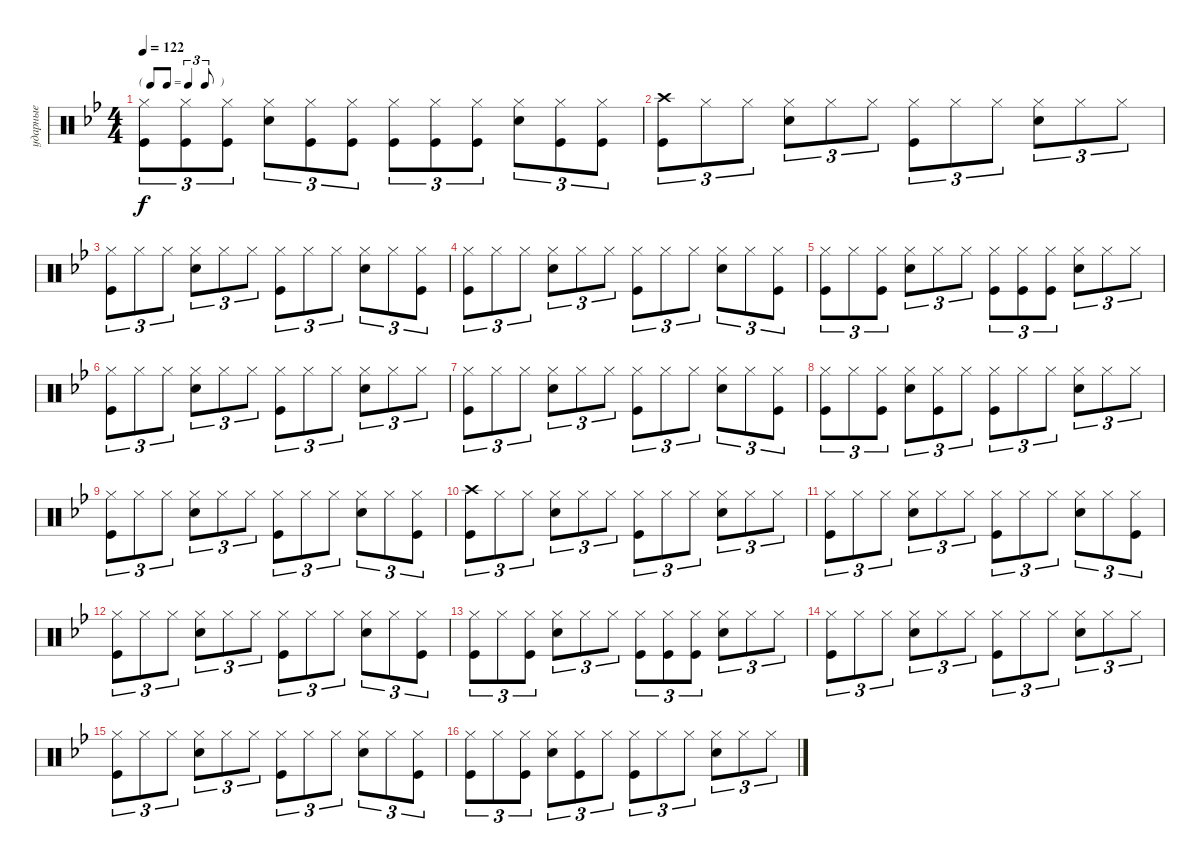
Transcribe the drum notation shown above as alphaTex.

\track ("ударные" "ударные") {instrument percussion}
\staff {score}
\articulation defaults
\ts (4 4)
\tf triplet8th
\tempo 122
\clef neutral
\ks gminor
("Hi-Hat (closed)" "Kick (hit)").8{tu (3 2) dy f} ("Hi-Hat (closed)" "Kick (hit)").8{tu (3 2)} ("Hi-Hat (closed)" "Kick (hit)").8{tu (3 2)} ("Hi-Hat (closed)" "Snare (hit) 2").8{tu (3 2)} ("Hi-Hat (closed)" "Kick (hit)").8{tu (3 2)} ("Hi-Hat (closed)" "Kick (hit)").8{tu (3 2)} ("Hi-Hat (closed)" "Kick (hit)").8{tu (3 2)} ("Hi-Hat (closed)" "Kick (hit)").8{tu (3 2)} ("Hi-Hat (closed)" "Kick (hit)").8{tu (3 2)} ("Hi-Hat (closed)" "Snare (hit) 2").8{tu (3 2)} ("Hi-Hat (closed)" "Kick (hit)").8{tu (3 2)} ("Hi-Hat (closed)" "Kick (hit)").8{tu (3 2)} |
("Kick (hit)" "Crash high (hit)").8{tu (3 2)} "Hi-Hat (closed)".8{tu (3 2)} "Hi-Hat (closed)".8{tu (3 2)} ("Hi-Hat (closed)" "Snare (hit) 2").8{tu (3 2)} "Hi-Hat (closed)".8{tu (3 2)} "Hi-Hat (closed)".8{tu (3 2)} ("Hi-Hat (closed)" "Kick (hit)").8{tu (3 2)} "Hi-Hat (closed)".8{tu (3 2)} "Hi-Hat (closed)".8{tu (3 2)} ("Hi-Hat (closed)" "Snare (hit) 2").8{tu (3 2)} "Hi-Hat (closed)".8{tu (3 2)} "Hi-Hat (closed)".8{tu (3 2)} |
("Hi-Hat (closed)" "Kick (hit)").8{tu (3 2)} "Hi-Hat (closed)".8{tu (3 2)} "Hi-Hat (closed)".8{tu (3 2)} ("Hi-Hat (closed)" "Snare (hit) 2").8{tu (3 2)} "Hi-Hat (closed)".8{tu (3 2)} "Hi-Hat (closed)".8{tu (3 2)} ("Hi-Hat (closed)" "Kick (hit)").8{tu (3 2)} "Hi-Hat (closed)".8{tu (3 2)} "Hi-Hat (closed)".8{tu (3 2)} ("Hi-Hat (closed)" "Snare (hit) 2").8{tu (3 2)} "Hi-Hat (closed)".8{tu (3 2)} ("Hi-Hat (closed)" "Kick (hit)").8{tu (3 2)} |
("Hi-Hat (closed)" "Kick (hit)").8{tu (3 2)} "Hi-Hat (closed)".8{tu (3 2)} "Hi-Hat (closed)".8{tu (3 2)} ("Hi-Hat (closed)" "Snare (hit) 2").8{tu (3 2)} "Hi-Hat (closed)".8{tu (3 2)} "Hi-Hat (closed)".8{tu (3 2)} ("Hi-Hat (closed)" "Kick (hit)").8{tu (3 2)} "Hi-Hat (closed)".8{tu (3 2)} "Hi-Hat (closed)".8{tu (3 2)} ("Hi-Hat (closed)" "Snare (hit) 2").8{tu (3 2)} "Hi-Hat (closed)".8{tu (3 2)} ("Hi-Hat (closed)" "Kick (hit)").8{tu (3 2)} |
("Hi-Hat (closed)" "Kick (hit)").8{tu (3 2)} "Hi-Hat (closed)".8{tu (3 2)} ("Hi-Hat (closed)" "Kick (hit)").8{tu (3 2)} ("Hi-Hat (closed)" "Snare (hit) 2").8{tu (3 2)} "Hi-Hat (closed)".8{tu (3 2)} "Hi-Hat (closed)".8{tu (3 2)} ("Hi-Hat (closed)" "Kick (hit)").8{tu (3 2)} ("Hi-Hat (closed)" "Kick (hit)").8{tu (3 2)} ("Hi-Hat (closed)" "Kick (hit)").8{tu (3 2)} ("Hi-Hat (closed)" "Snare (hit) 2").8{tu (3 2)} "Hi-Hat (closed)".8{tu (3 2)} "Hi-Hat (closed)".8{tu (3 2)} |
("Hi-Hat (closed)" "Kick (hit)").8{tu (3 2)} "Hi-Hat (closed)".8{tu (3 2)} "Hi-Hat (closed)".8{tu (3 2)} ("Hi-Hat (closed)" "Snare (hit) 2").8{tu (3 2)} "Hi-Hat (closed)".8{tu (3 2)} "Hi-Hat (closed)".8{tu (3 2)} ("Hi-Hat (closed)" "Kick (hit)").8{tu (3 2)} "Hi-Hat (closed)".8{tu (3 2)} "Hi-Hat (closed)".8{tu (3 2)} ("Hi-Hat (closed)" "Snare (hit) 2").8{tu (3 2)} "Hi-Hat (closed)".8{tu (3 2)} "Hi-Hat (closed)".8{tu (3 2)} |
("Hi-Hat (closed)" "Kick (hit)").8{tu (3 2)} "Hi-Hat (closed)".8{tu (3 2)} "Hi-Hat (closed)".8{tu (3 2)} ("Hi-Hat (closed)" "Snare (hit) 2").8{tu (3 2)} "Hi-Hat (closed)".8{tu (3 2)} "Hi-Hat (closed)".8{tu (3 2)} ("Hi-Hat (closed)" "Kick (hit)").8{tu (3 2)} "Hi-Hat (closed)".8{tu (3 2)} "Hi-Hat (closed)".8{tu (3 2)} ("Hi-Hat (closed)" "Snare (hit) 2").8{tu (3 2)} "Hi-Hat (closed)".8{tu (3 2)} ("Hi-Hat (closed)" "Kick (hit)").8{tu (3 2)} |
("Hi-Hat (closed)" "Kick (hit)").8{tu (3 2)} "Hi-Hat (closed)".8{tu (3 2)} ("Hi-Hat (closed)" "Kick (hit)").8{tu (3 2)} ("Hi-Hat (closed)" "Snare (hit) 2").8{tu (3 2)} ("Hi-Hat (closed)" "Kick (hit)").8{tu (3 2)} "Hi-Hat (closed)".8{tu (3 2)} ("Hi-Hat (closed)" "Kick (hit)").8{tu (3 2)} "Hi-Hat (closed)".8{tu (3 2)} "Hi-Hat (closed)".8{tu (3 2)} ("Hi-Hat (closed)" "Snare (hit) 2").8{tu (3 2)} "Hi-Hat (closed)".8{tu (3 2)} "Hi-Hat (closed)".8{tu (3 2)} |
("Hi-Hat (closed)" "Kick (hit)").8{tu (3 2)} "Hi-Hat (closed)".8{tu (3 2)} "Hi-Hat (closed)".8{tu (3 2)} ("Hi-Hat (closed)" "Snare (hit) 2").8{tu (3 2)} "Hi-Hat (closed)".8{tu (3 2)} "Hi-Hat (closed)".8{tu (3 2)} ("Hi-Hat (closed)" "Kick (hit)").8{tu (3 2)} "Hi-Hat (closed)".8{tu (3 2)} "Hi-Hat (closed)".8{tu (3 2)} ("Hi-Hat (closed)" "Snare (hit) 2").8{tu (3 2)} "Hi-Hat (closed)".8{tu (3 2)} ("Hi-Hat (closed)" "Kick (hit)").8{tu (3 2)} |
("Kick (hit)" "Crash high (hit)").8{tu (3 2)} "Hi-Hat (closed)".8{tu (3 2)} "Hi-Hat (closed)".8{tu (3 2)} ("Hi-Hat (closed)" "Snare (hit) 2").8{tu (3 2)} "Hi-Hat (closed)".8{tu (3 2)} "Hi-Hat (closed)".8{tu (3 2)} ("Hi-Hat (closed)" "Kick (hit)").8{tu (3 2)} "Hi-Hat (closed)".8{tu (3 2)} "Hi-Hat (closed)".8{tu (3 2)} ("Hi-Hat (closed)" "Snare (hit) 2").8{tu (3 2)} "Hi-Hat (closed)".8{tu (3 2)} "Hi-Hat (closed)".8{tu (3 2)} |
("Hi-Hat (closed)" "Kick (hit)").8{tu (3 2)} "Hi-Hat (closed)".8{tu (3 2)} "Hi-Hat (closed)".8{tu (3 2)} ("Hi-Hat (closed)" "Snare (hit) 2").8{tu (3 2)} "Hi-Hat (closed)".8{tu (3 2)} "Hi-Hat (closed)".8{tu (3 2)} ("Hi-Hat (closed)" "Kick (hit)").8{tu (3 2)} "Hi-Hat (closed)".8{tu (3 2)} "Hi-Hat (closed)".8{tu (3 2)} ("Hi-Hat (closed)" "Snare (hit) 2").8{tu (3 2)} "Hi-Hat (closed)".8{tu (3 2)} ("Hi-Hat (closed)" "Kick (hit)").8{tu (3 2)} |
("Hi-Hat (closed)" "Kick (hit)").8{tu (3 2)} "Hi-Hat (closed)".8{tu (3 2)} "Hi-Hat (closed)".8{tu (3 2)} ("Hi-Hat (closed)" "Snare (hit) 2").8{tu (3 2)} "Hi-Hat (closed)".8{tu (3 2)} "Hi-Hat (closed)".8{tu (3 2)} ("Hi-Hat (closed)" "Kick (hit)").8{tu (3 2)} "Hi-Hat (closed)".8{tu (3 2)} "Hi-Hat (closed)".8{tu (3 2)} ("Hi-Hat (closed)" "Snare (hit) 2").8{tu (3 2)} "Hi-Hat (closed)".8{tu (3 2)} ("Hi-Hat (closed)" "Kick (hit)").8{tu (3 2)} |
("Hi-Hat (closed)" "Kick (hit)").8{tu (3 2)} "Hi-Hat (closed)".8{tu (3 2)} ("Hi-Hat (closed)" "Kick (hit)").8{tu (3 2)} ("Hi-Hat (closed)" "Snare (hit) 2").8{tu (3 2)} "Hi-Hat (closed)".8{tu (3 2)} "Hi-Hat (closed)".8{tu (3 2)} ("Hi-Hat (closed)" "Kick (hit)").8{tu (3 2)} ("Hi-Hat (closed)" "Kick (hit)").8{tu (3 2)} ("Hi-Hat (closed)" "Kick (hit)").8{tu (3 2)} ("Hi-Hat (closed)" "Snare (hit) 2").8{tu (3 2)} "Hi-Hat (closed)".8{tu (3 2)} "Hi-Hat (closed)".8{tu (3 2)} |
("Hi-Hat (closed)" "Kick (hit)").8{tu (3 2)} "Hi-Hat (closed)".8{tu (3 2)} "Hi-Hat (closed)".8{tu (3 2)} ("Hi-Hat (closed)" "Snare (hit) 2").8{tu (3 2)} "Hi-Hat (closed)".8{tu (3 2)} "Hi-Hat (closed)".8{tu (3 2)} ("Hi-Hat (closed)" "Kick (hit)").8{tu (3 2)} "Hi-Hat (closed)".8{tu (3 2)} "Hi-Hat (closed)".8{tu (3 2)} ("Hi-Hat (closed)" "Snare (hit) 2").8{tu (3 2)} "Hi-Hat (closed)".8{tu (3 2)} "Hi-Hat (closed)".8{tu (3 2)} |
("Hi-Hat (closed)" "Kick (hit)").8{tu (3 2)} "Hi-Hat (closed)".8{tu (3 2)} "Hi-Hat (closed)".8{tu (3 2)} ("Hi-Hat (closed)" "Snare (hit) 2").8{tu (3 2)} "Hi-Hat (closed)".8{tu (3 2)} "Hi-Hat (closed)".8{tu (3 2)} ("Hi-Hat (closed)" "Kick (hit)").8{tu (3 2)} "Hi-Hat (closed)".8{tu (3 2)} "Hi-Hat (closed)".8{tu (3 2)} ("Hi-Hat (closed)" "Snare (hit) 2").8{tu (3 2)} "Hi-Hat (closed)".8{tu (3 2)} ("Hi-Hat (closed)" "Kick (hit)").8{tu (3 2)} |
("Hi-Hat (closed)" "Kick (hit)").8{tu (3 2)} "Hi-Hat (closed)".8{tu (3 2)} ("Hi-Hat (closed)" "Kick (hit)").8{tu (3 2)} ("Hi-Hat (closed)" "Snare (hit) 2").8{tu (3 2)} ("Hi-Hat (closed)" "Kick (hit)").8{tu (3 2)} "Hi-Hat (closed)".8{tu (3 2)} ("Hi-Hat (closed)" "Kick (hit)").8{tu (3 2)} "Hi-Hat (closed)".8{tu (3 2)} "Hi-Hat (closed)".8{tu (3 2)} ("Hi-Hat (closed)" "Snare (hit) 2").8{tu (3 2)} "Hi-Hat (closed)".8{tu (3 2)} "Hi-Hat (closed)".8{tu (3 2)}
